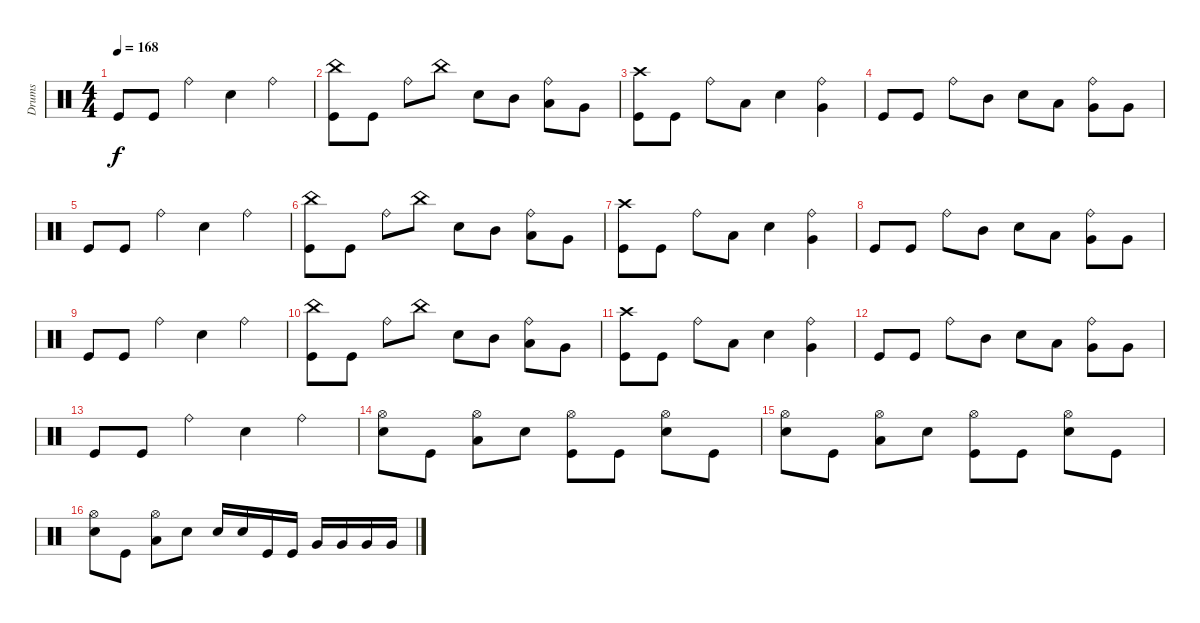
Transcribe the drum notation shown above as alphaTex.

\track ("Drums" "Drums") {instrument percussion}
\staff {score}
\articulation defaults
\ts (4 4)
\tempo 168
\clef neutral
\ks c "Kick (hit)".8{dy f} "Kick (hit)".8 "Ride (bell)".4 "Electric Snare (hit)".4 "Ride (bell)".4
|
("China (hit)" "Kick (hit)").8 "Kick (hit)".8 "Ride (bell)".8 "China (hit)".8 "Electric Snare (hit)".8 "Mid Tom (hit)".8 ("Ride (bell)" "Low Tom (hit)").8 "Very Low Tom (hit)".8 |
("Crash high (hit)" "Kick (hit)").8 "Kick (hit)".8 "Ride (bell)".8 "Low Tom (hit)".8 "Electric Snare (hit)".4 ("Ride (bell)" "Very Low Tom (hit)").4 |
"Kick (hit)".8 "Kick (hit)".8 "Ride (bell)".8 "Mid Tom (hit)".8 "Electric Snare (hit)".8 "Low Tom (hit)".8 ("Ride (bell)" "Very Low Tom (hit)").8 "Very Low Tom (hit)".8 |
"Kick (hit)".8 "Kick (hit)".8 "Ride (bell)".4 "Electric Snare (hit)".4 "Ride (bell)".4 |
("China (hit)" "Kick (hit)").8 "Kick (hit)".8 "Ride (bell)".8 "China (hit)".8 "Electric Snare (hit)".8 "Mid Tom (hit)".8 ("Ride (bell)" "Low Tom (hit)").8 "Very Low Tom (hit)".8 |
("Crash high (hit)" "Kick (hit)").8 "Kick (hit)".8 "Ride (bell)".8 "Low Tom (hit)".8 "Electric Snare (hit)".4 ("Ride (bell)" "Very Low Tom (hit)").4 |
"Kick (hit)".8 "Kick (hit)".8 "Ride (bell)".8 "Mid Tom (hit)".8 "Electric Snare (hit)".8 "Low Tom (hit)".8 ("Ride (bell)" "Very Low Tom (hit)").8 "Very Low Tom (hit)".8 |
"Kick (hit)".8 "Kick (hit)".8 "Ride (bell)".4 "Electric Snare (hit)".4 "Ride (bell)".4 |
("China (hit)" "Kick (hit)").8 "Kick (hit)".8 "Ride (bell)".8 "China (hit)".8 "Electric Snare (hit)".8 "Mid Tom (hit)".8 ("Ride (bell)" "Low Tom (hit)").8 "Very Low Tom (hit)".8 |
("Crash high (hit)" "Kick (hit)").8 "Kick (hit)".8 "Ride (bell)".8 "Low Tom (hit)".8 "Electric Snare (hit)".4 ("Ride (bell)" "Very Low Tom (hit)").4 |
"Kick (hit)".8 "Kick (hit)".8 "Ride (bell)".8 "Mid Tom (hit)".8 "Electric Snare (hit)".8 "Low Tom (hit)".8 ("Ride (bell)" "Very Low Tom (hit)").8 "Very Low Tom (hit)".8 |
"Kick (hit)".8 "Kick (hit)".8 "Ride (bell)".4 "Electric Snare (hit)".4 "Ride (bell)".4 |
("Hi-Hat (open)" "Electric Snare (hit)").8 "Kick (hit)".8 ("Hi-Hat (open)" "Low Tom (hit)").8 "Electric Snare (hit)".8 ("Hi-Hat (open)" "Kick (hit)").8 "Kick (hit)".8 ("Hi-Hat (open)" "Electric Snare (hit)").8 "Kick (hit)".8 |
("Hi-Hat (open)" "Electric Snare (hit)").8 "Kick (hit)".8 ("Hi-Hat (open)" "Low Tom (hit)").8 "Electric Snare (hit)".8 ("Hi-Hat (open)" "Kick (hit)").8 "Kick (hit)".8 ("Hi-Hat (open)" "Electric Snare (hit)").8 "Kick (hit)".8 |
("Hi-Hat (open)" "Electric Snare (hit)").8 "Kick (hit)".8 ("Hi-Hat (open)" "Low Tom (hit)").8 "Electric Snare (hit)".8 "Electric Snare (hit)".16 "Electric Snare (hit)".16 "Kick (hit)".16 "Kick (hit)".16 "Very Low Tom (hit)".16 "Very Low Tom (hit)".16 "Very Low Tom (hit)".16 "Very Low Tom (hit)".16
